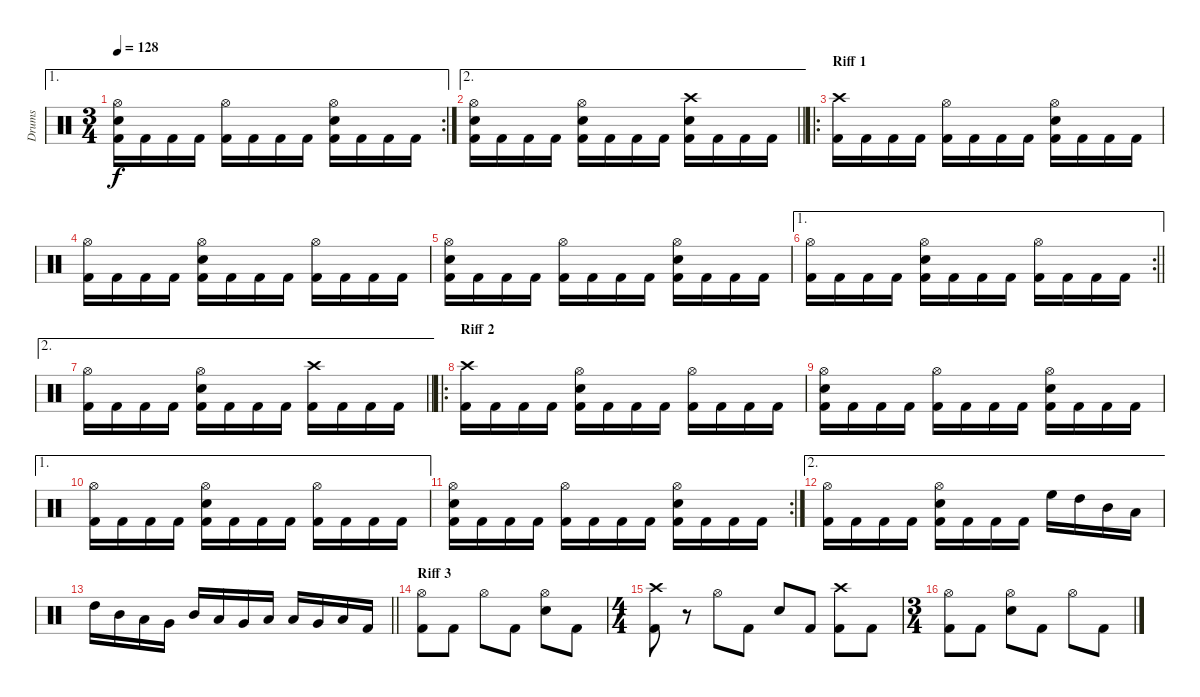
\track ("Drums" "Drums") {instrument percussion}
\staff {score}
\articulation defaults
\ae 1
\rc 2
\ts (3 4)
\tempo 128
\clef neutral
\ks c
("Hi-Hat (open)" "Electric Snare (hit)" "Kick (hit) 2").16{dy f} "Kick (hit) 2".16 "Kick (hit) 2".16 "Kick (hit) 2".16 ("Hi-Hat (open)" "Kick (hit) 2").16 "Kick (hit) 2".16 "Kick (hit) 2".16 "Kick (hit) 2".16 ("Hi-Hat (open)" "Electric Snare (hit)" "Kick (hit) 2").16 "Kick (hit) 2".16 "Kick (hit) 2".16 "Kick (hit) 2".16 |
\ae 2
\barLineRight lightlight
("Hi-Hat (open)" "Electric Snare (hit)" "Kick (hit) 2").16 "Kick (hit) 2".16 "Kick (hit) 2".16 "Kick (hit) 2".16 ("Hi-Hat (open)" "Electric Snare (hit)" "Kick (hit) 2").16 "Kick (hit) 2".16 "Kick (hit) 2".16 "Kick (hit) 2".16 ("Crash high (hit)" "Electric Snare (hit)" "Kick (hit) 2").16 "Kick (hit) 2".16 "Kick (hit) 2".16 "Kick (hit) 2".16 |
\ro
\section ("" "Riff 1")
("Crash high (hit)" "Kick (hit) 2").16 "Kick (hit) 2".16 "Kick (hit) 2".16 "Kick (hit) 2".16 ("Hi-Hat (open)" "Kick (hit) 2").16 "Kick (hit) 2".16 "Kick (hit) 2".16 "Kick (hit) 2".16 ("Hi-Hat (open)" "Electric Snare (hit)" "Kick (hit) 2").16 "Kick (hit) 2".16 "Kick (hit) 2".16 "Kick (hit) 2".16 |
("Hi-Hat (open)" "Kick (hit) 2").16 "Kick (hit) 2".16 "Kick (hit) 2".16 "Kick (hit) 2".16 ("Hi-Hat (open)" "Electric Snare (hit)" "Kick (hit) 2").16 "Kick (hit) 2".16 "Kick (hit) 2".16 "Kick (hit) 2".16 ("Hi-Hat (open)" "Kick (hit) 2").16 "Kick (hit) 2".16 "Kick (hit) 2".16 "Kick (hit) 2".16 |
("Hi-Hat (open)" "Electric Snare (hit)" "Kick (hit) 2").16 "Kick (hit) 2".16 "Kick (hit) 2".16 "Kick (hit) 2".16 ("Hi-Hat (open)" "Kick (hit) 2").16 "Kick (hit) 2".16 "Kick (hit) 2".16 "Kick (hit) 2".16 ("Hi-Hat (open)" "Electric Snare (hit)" "Kick (hit) 2").16 "Kick (hit) 2".16 "Kick (hit) 2".16 "Kick (hit) 2".16 |
\ae 1
\rc 2
\barLineRight lightlight
("Hi-Hat (open)" "Kick (hit) 2").16 "Kick (hit) 2".16 "Kick (hit) 2".16 "Kick (hit) 2".16 ("Hi-Hat (open)" "Electric Snare (hit)" "Kick (hit) 2").16 "Kick (hit) 2".16 "Kick (hit) 2".16 "Kick (hit) 2".16 ("Hi-Hat (open)" "Kick (hit) 2").16 "Kick (hit) 2".16 "Kick (hit) 2".16 "Kick (hit) 2".16 |
\ae 2
\barLineRight lightlight
("Hi-Hat (open)" "Kick (hit) 2").16 "Kick (hit) 2".16 "Kick (hit) 2".16 "Kick (hit) 2".16 ("Hi-Hat (open)" "Electric Snare (hit)" "Kick (hit) 2").16 "Kick (hit) 2".16 "Kick (hit) 2".16 "Kick (hit) 2".16 ("Crash high (hit)" "Kick (hit) 2").16 "Kick (hit) 2".16 "Kick (hit) 2".16 "Kick (hit) 2".16 |
\ro
\section ("" "Riff 2")
("Crash high (hit)" "Kick (hit) 2").16 "Kick (hit) 2".16 "Kick (hit) 2".16 "Kick (hit) 2".16 ("Hi-Hat (open)" "Electric Snare (hit)" "Kick (hit) 2").16 "Kick (hit) 2".16 "Kick (hit) 2".16 "Kick (hit) 2".16 ("Hi-Hat (open)" "Kick (hit) 2").16 "Kick (hit) 2".16 "Kick (hit) 2".16 "Kick (hit) 2".16 |
("Hi-Hat (open)" "Electric Snare (hit)" "Kick (hit) 2").16 "Kick (hit) 2".16 "Kick (hit) 2".16 "Kick (hit) 2".16 ("Hi-Hat (open)" "Kick (hit) 2").16 "Kick (hit) 2".16 "Kick (hit) 2".16 "Kick (hit) 2".16 ("Hi-Hat (open)" "Electric Snare (hit)" "Kick (hit) 2").16 "Kick (hit) 2".16 "Kick (hit) 2".16 "Kick (hit) 2".16 |
\ae 1
("Hi-Hat (open)" "Kick (hit) 2").16 "Kick (hit) 2".16 "Kick (hit) 2".16 "Kick (hit) 2".16 ("Hi-Hat (open)" "Electric Snare (hit)" "Kick (hit) 2").16 "Kick (hit) 2".16 "Kick (hit) 2".16 "Kick (hit) 2".16 ("Hi-Hat (open)" "Kick (hit) 2").16 "Kick (hit) 2".16 "Kick (hit) 2".16 "Kick (hit) 2".16 |
\rc 2
("Hi-Hat (open)" "Electric Snare (hit)" "Kick (hit) 2").16 "Kick (hit) 2".16 "Kick (hit) 2".16 "Kick (hit) 2".16 ("Hi-Hat (open)" "Kick (hit) 2").16 "Kick (hit) 2".16 "Kick (hit) 2".16 "Kick (hit) 2".16 ("Hi-Hat (open)" "Electric Snare (hit)" "Kick (hit) 2").16 "Kick (hit) 2".16 "Kick (hit) 2".16 "Kick (hit) 2".16 |
\ae 2
("Hi-Hat (open)" "Kick (hit) 2").16 "Kick (hit) 2".16 "Kick (hit) 2".16 "Kick (hit) 2".16 ("Hi-Hat (open)" "Electric Snare (hit)" "Kick (hit) 2").16 "Kick (hit) 2".16 "Kick (hit) 2".16 "Kick (hit) 2".16 "High Floor Tom (hit)".16 "High Tom (hit)".16 "Mid Tom (hit)".16 "Low Tom (hit)".16 |
\barLineRight lightlight "High Tom (hit)".16 "Mid Tom (hit)".16 "Low Tom (hit)".16 "Very Low Tom (hit)".16 "Mid Tom (hit)".16 "Low Tom (hit)".16 "Very Low Tom (hit)".16 "Low Floor Tom (hit)".16 "Low Tom (hit)".16 "Very Low Tom (hit)".16 "Low Floor Tom (hit)".16 "Kick (hit) 2".16
|
\section ("" "Riff 3")
("Hi-Hat (open)" "Kick (hit) 2").8 "Kick (hit) 2".8 "Hi-Hat (open)".8 "Kick (hit) 2".8 ("Hi-Hat (open)" "Electric Snare (hit)").8 "Kick (hit) 2".8 |
\ts (4 4)
("Crash high (hit)" "Kick (hit) 2").8 r.8 "Hi-Hat (open)".8 "Kick (hit) 2".8 "Electric Snare (hit)".8 "Kick (hit) 2".8 ("Crash high (hit)" "Kick (hit) 2").8 "Kick (hit) 2".8 |
\ts (3 4)
("Hi-Hat (open)" "Kick (hit) 2").8 "Kick (hit) 2".8 ("Hi-Hat (open)" "Electric Snare (hit)").8 "Kick (hit) 2".8 "Hi-Hat (open)".8 "Kick (hit) 2".8
